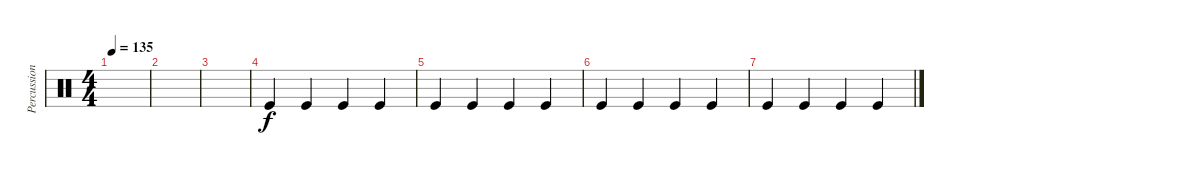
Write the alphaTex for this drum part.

\track ("Percussion" "Percussion") {instrument percussion}
\staff {score}
\articulation defaults
\ts (4 4)
\tempo 135
\clef neutral
\ks c
|
|
|
"Kick (hit)".4 "Kick (hit)".4 "Kick (hit)".4 "Kick (hit)".4 |
"Kick (hit)".4 "Kick (hit)".4 "Kick (hit)".4 "Kick (hit)".4 |
"Kick (hit)".4 "Kick (hit)".4 "Kick (hit)".4 "Kick (hit)".4 |
"Kick (hit)".4 "Kick (hit)".4 "Kick (hit)".4 "Kick (hit)".4
